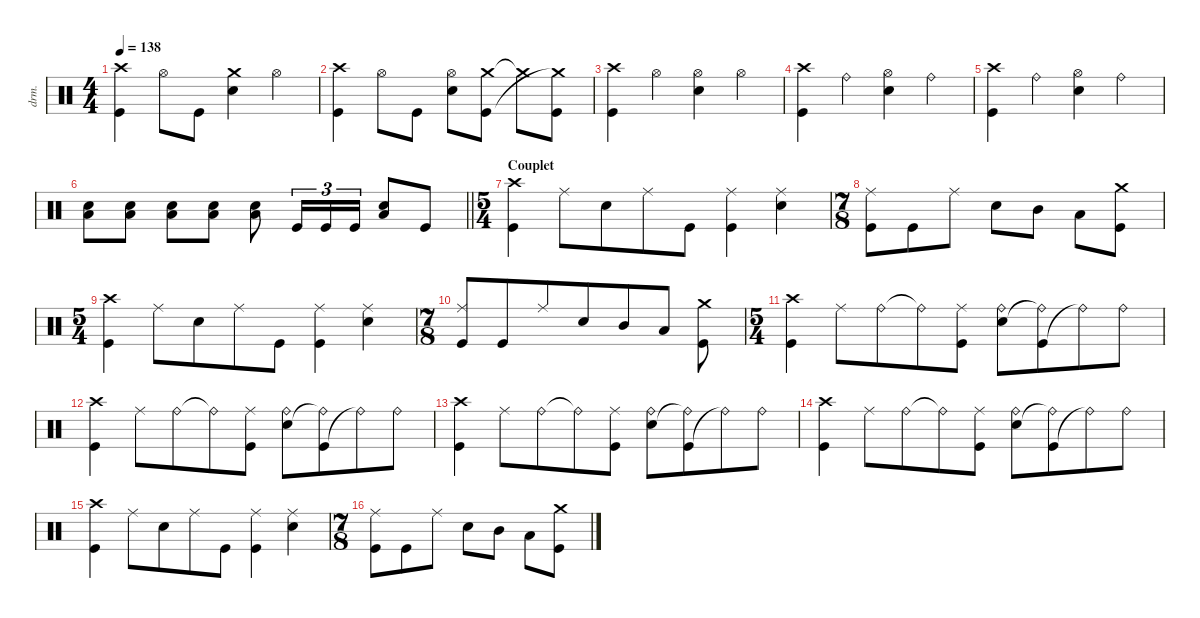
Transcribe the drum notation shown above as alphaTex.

\defaultSystemsLayout 4
\hideDynamics
\bracketExtendMode nobrackets
\track ("Percussions" "drm.") {instrument percussion}
\staff {score}
\articulation defaults
\ts (4 4)
\tempo 138
\clef neutral
\ks aminor
("Kick (hit)" "Crash high (hit)").4{dy f beam Down} "Hi-Hat (open)".8{beam Down} "Kick (hit)".8{beam Down} ("Crash medium (hit)" "Snare (hit) 2").4{beam Down} "Hi-Hat (open)".4{beam Down} |
("Kick (hit)" "Crash high (hit)").4{beam Down} "Hi-Hat (open)".8{beam Down} "Kick (hit)".8{beam Down} ("Hi-Hat (open)" "Snare (hit) 2").8{beam Down} ("Crash medium (hit)" "Kick (hit)").8{beam Down} "Crash medium (hit)"{t}.8{beam Down} ("Kick (hit)" "Crash medium (hit)"{t}).8{beam Down} |
("Kick (hit)" "Crash high (hit)").4{beam Down} "Hi-Hat (open)".4{beam Down} ("Hi-Hat (open)" "Snare (hit) 2").4{beam Down} "Hi-Hat (open)".4{beam Down} |
("Kick (hit)" "Crash high (hit)").4{beam Down} "Ride (bell)".4{beam Down} ("Hi-Hat (open)" "Snare (hit) 2").4{beam Down} "Ride (bell)".4{beam Down} |
("Kick (hit)" "Crash high (hit)").4{beam Down} "Ride (bell)".4{beam Down} ("Hi-Hat (open)" "Snare (hit) 2").4{beam Down} "Ride (bell)".4{beam Down} |
\barLineRight lightlight
("Snare (hit) 2" "Low Tom (hit)").8{beam Down} ("Snare (hit) 2" "Low Tom (hit)").8{beam Down} ("Snare (hit) 2" "Low Tom (hit)").8{beam Down} ("Snare (hit) 2" "Low Tom (hit)").8{beam Down} ("Snare (hit) 2" "Low Tom (hit)").8{beam Down} "Kick (hit)".16{tu (3 2) beam Up} "Kick (hit)".16{tu (3 2) beam Up} "Kick (hit)".16{tu (3 2) beam Up} ("Snare (hit) 2" "Low Tom (hit)").8{beam Up} "Kick (hit)".8{beam Up} |
\ts (5 4)
\beaming (8 6 4)
\section ("" "Couplet")
("Crash high (hit)" "Kick (hit)").4{beam Down} "Ride (middle)".8{beam Down} "Snare (hit) 2".8{beam Down} "Ride (middle)".8{beam Down} "Kick (hit)".8{beam Down} ("Ride (middle)" "Kick (hit)").4{beam Down} ("Ride (middle)" "Snare (hit) 2").4{beam Down} |
\ts (7 8)
\beaming (8 3 2 2)
("Ride (middle)" "Kick (hit)").8{beam Down} "Kick (hit)".8{beam Down} "Ride (middle)".8{beam Down} "Snare (hit) 2".8{beam Down} "Mid Tom (hit)".8{beam Down} "Low Tom (hit)".8{beam Down} ("Kick (hit)" "Crash medium (hit)").8{beam Down} |
\ts (5 4)
\beaming (8 6 4)
("Crash high (hit)" "Kick (hit)").4{beam Down} "Ride (middle)".8{beam Down} "Snare (hit) 2".8{beam Down} "Ride (middle)".8{beam Down} "Kick (hit)".8{beam Down} ("Ride (middle)" "Kick (hit)").4{beam Down} ("Ride (middle)" "Snare (hit) 2").4{beam Down} |
\ts (7 8)
\beaming (8 6 4)
("Ride (middle)" "Kick (hit)").8{beam Up} "Kick (hit)".8{beam Up} "Ride (middle)".8{beam Up} "Snare (hit) 2".8{beam Up} "Mid Tom (hit)".8{beam Up} "Low Tom (hit)".8{beam Up} ("Kick (hit)" "Crash medium (hit)").8{beam Down} |
\ts (5 4)
\beaming (8 6 4)
("Crash high (hit)" "Kick (hit)").4{beam Down} "Ride (middle)".8{beam Down} "Ride (bell)".8{beam Down} "Ride (bell)"{t}.8{beam Down} ("Ride (middle)" "Kick (hit)").8{beam Down} ("Ride (bell)" "Snare (hit) 2").8{beam Down} ("Kick (hit)" "Ride (bell)"{t}).8{beam Down} "Ride (bell)"{t}.8{beam Down} "Ride (bell)".8{beam Down} |
("Crash high (hit)" "Kick (hit)").4{beam Down} "Ride (middle)".8{beam Down} "Ride (bell)".8{beam Down} "Ride (bell)"{t}.8{beam Down} ("Ride (middle)" "Kick (hit)").8{beam Down} ("Ride (bell)" "Snare (hit) 2").8{beam Down} ("Kick (hit)" "Ride (bell)"{t}).8{beam Down} "Ride (bell)"{t}.8{beam Down} "Ride (bell)".8{beam Down} |
("Crash high (hit)" "Kick (hit)").4{beam Down} "Ride (middle)".8{beam Down} "Ride (bell)".8{beam Down} "Ride (bell)"{t}.8{beam Down} ("Ride (middle)" "Kick (hit)").8{beam Down} ("Ride (bell)" "Snare (hit) 2").8{beam Down} ("Kick (hit)" "Ride (bell)"{t}).8{beam Down} "Ride (bell)"{t}.8{beam Down} "Ride (bell)".8{beam Down} |
("Crash high (hit)" "Kick (hit)").4{beam Down} "Ride (middle)".8{beam Down} "Ride (bell)".8{beam Down} "Ride (bell)"{t}.8{beam Down} ("Ride (middle)" "Kick (hit)").8{beam Down} ("Ride (bell)" "Snare (hit) 2").8{beam Down} ("Kick (hit)" "Ride (bell)"{t}).8{beam Down} "Ride (bell)"{t}.8{beam Down} "Ride (bell)".8{beam Down} |
("Crash high (hit)" "Kick (hit)").4{beam Down} "Ride (middle)".8{beam Down} "Snare (hit) 2".8{beam Down} "Ride (middle)".8{beam Down} "Kick (hit)".8{beam Down} ("Ride (middle)" "Kick (hit)").4{beam Down} ("Ride (middle)" "Snare (hit) 2").4{beam Down} |
\ts (7 8)
\beaming (8 3 2 2)
("Ride (middle)" "Kick (hit)").8{beam Down} "Kick (hit)".8{beam Down} "Ride (middle)".8{beam Down} "Snare (hit) 2".8{beam Down} "Mid Tom (hit)".8{beam Down} "Low Tom (hit)".8{beam Down} ("Kick (hit)" "Crash medium (hit)").8{beam Down}
